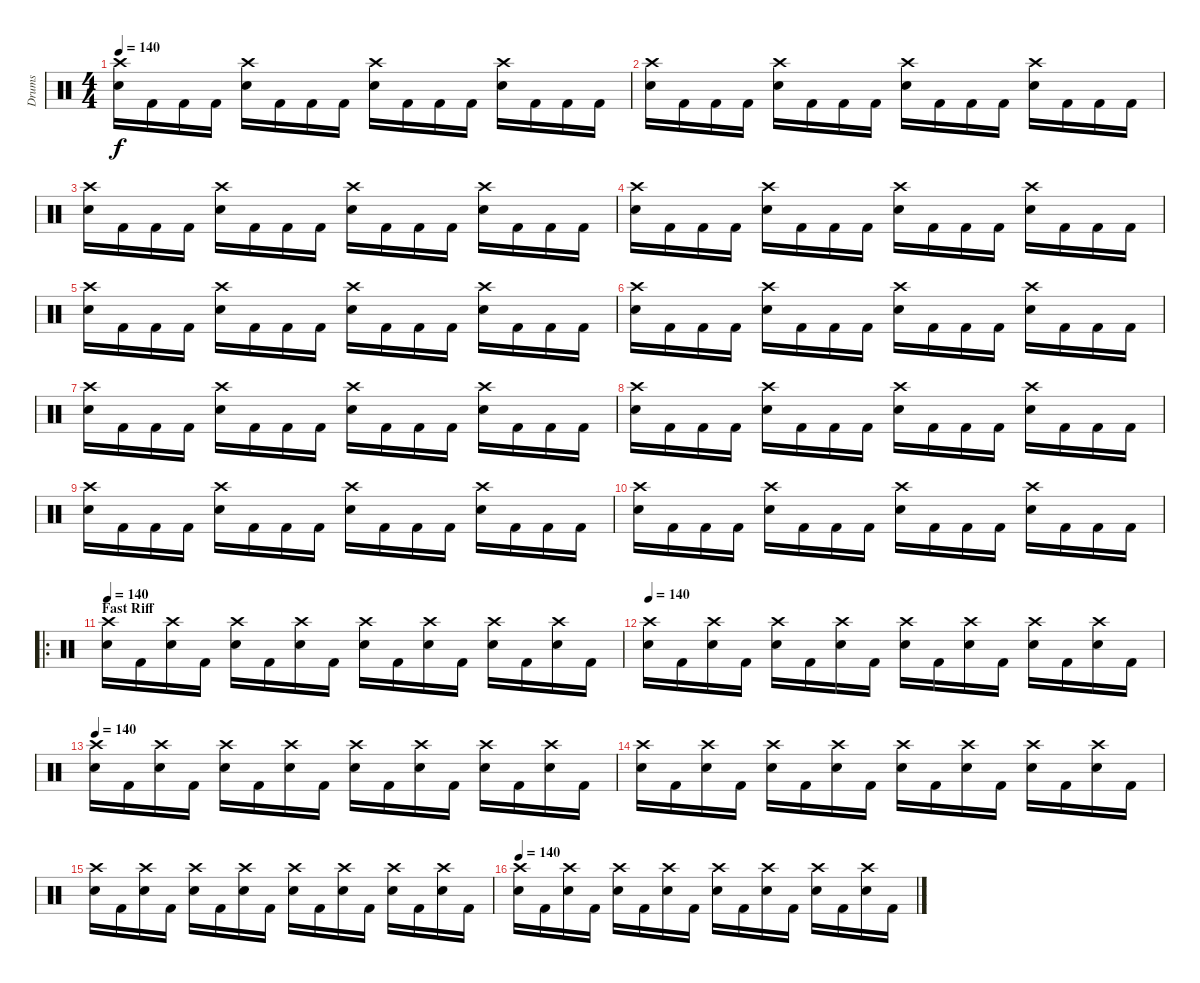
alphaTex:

\track ("Drums" "Drums") {instrument percussion}
\staff {score}
\articulation defaults
\ts (4 4)
\tempo 140
\clef neutral
\ks c
("Crash high (hit)" "Electric Snare (hit)").16{dy f} "Kick (hit) 2".16 "Kick (hit) 2".16 "Kick (hit) 2".16 ("Electric Snare (hit)" "Crash high (hit)").16 "Kick (hit) 2".16 "Kick (hit) 2".16 "Kick (hit) 2".16 ("Crash high (hit)" "Electric Snare (hit)").16 "Kick (hit) 2".16 "Kick (hit) 2".16 "Kick (hit) 2".16 ("Electric Snare (hit)" "Crash high (hit)").16 "Kick (hit) 2".16 "Kick (hit) 2".16 "Kick (hit) 2".16 |
("Crash high (hit)" "Electric Snare (hit)").16 "Kick (hit) 2".16 "Kick (hit) 2".16 "Kick (hit) 2".16 ("Electric Snare (hit)" "Crash high (hit)").16 "Kick (hit) 2".16 "Kick (hit) 2".16 "Kick (hit) 2".16 ("Crash high (hit)" "Electric Snare (hit)").16 "Kick (hit) 2".16 "Kick (hit) 2".16 "Kick (hit) 2".16 ("Electric Snare (hit)" "Crash high (hit)").16 "Kick (hit) 2".16 "Kick (hit) 2".16 "Kick (hit) 2".16 |
("Crash high (hit)" "Electric Snare (hit)").16 "Kick (hit) 2".16 "Kick (hit) 2".16 "Kick (hit) 2".16 ("Electric Snare (hit)" "Crash high (hit)").16 "Kick (hit) 2".16 "Kick (hit) 2".16 "Kick (hit) 2".16 ("Crash high (hit)" "Electric Snare (hit)").16 "Kick (hit) 2".16 "Kick (hit) 2".16 "Kick (hit) 2".16 ("Electric Snare (hit)" "Crash high (hit)").16 "Kick (hit) 2".16 "Kick (hit) 2".16 "Kick (hit) 2".16 |
("Crash high (hit)" "Electric Snare (hit)").16 "Kick (hit) 2".16 "Kick (hit) 2".16 "Kick (hit) 2".16 ("Electric Snare (hit)" "Crash high (hit)").16 "Kick (hit) 2".16 "Kick (hit) 2".16 "Kick (hit) 2".16 ("Crash high (hit)" "Electric Snare (hit)").16 "Kick (hit) 2".16 "Kick (hit) 2".16 "Kick (hit) 2".16 ("Electric Snare (hit)" "Crash high (hit)").16 "Kick (hit) 2".16 "Kick (hit) 2".16 "Kick (hit) 2".16 |
("Crash high (hit)" "Electric Snare (hit)").16 "Kick (hit) 2".16 "Kick (hit) 2".16 "Kick (hit) 2".16 ("Electric Snare (hit)" "Crash high (hit)").16 "Kick (hit) 2".16 "Kick (hit) 2".16 "Kick (hit) 2".16 ("Crash high (hit)" "Electric Snare (hit)").16 "Kick (hit) 2".16 "Kick (hit) 2".16 "Kick (hit) 2".16 ("Electric Snare (hit)" "Crash high (hit)").16 "Kick (hit) 2".16 "Kick (hit) 2".16 "Kick (hit) 2".16 |
("Crash high (hit)" "Electric Snare (hit)").16 "Kick (hit) 2".16 "Kick (hit) 2".16 "Kick (hit) 2".16 ("Electric Snare (hit)" "Crash high (hit)").16 "Kick (hit) 2".16 "Kick (hit) 2".16 "Kick (hit) 2".16 ("Crash high (hit)" "Electric Snare (hit)").16 "Kick (hit) 2".16 "Kick (hit) 2".16 "Kick (hit) 2".16 ("Electric Snare (hit)" "Crash high (hit)").16 "Kick (hit) 2".16 "Kick (hit) 2".16 "Kick (hit) 2".16 |
("Crash high (hit)" "Electric Snare (hit)").16 "Kick (hit) 2".16 "Kick (hit) 2".16 "Kick (hit) 2".16 ("Electric Snare (hit)" "Crash high (hit)").16 "Kick (hit) 2".16 "Kick (hit) 2".16 "Kick (hit) 2".16 ("Crash high (hit)" "Electric Snare (hit)").16 "Kick (hit) 2".16 "Kick (hit) 2".16 "Kick (hit) 2".16 ("Electric Snare (hit)" "Crash high (hit)").16 "Kick (hit) 2".16 "Kick (hit) 2".16 "Kick (hit) 2".16 |
("Crash high (hit)" "Electric Snare (hit)").16 "Kick (hit) 2".16 "Kick (hit) 2".16 "Kick (hit) 2".16 ("Electric Snare (hit)" "Crash high (hit)").16 "Kick (hit) 2".16 "Kick (hit) 2".16 "Kick (hit) 2".16 ("Crash high (hit)" "Electric Snare (hit)").16 "Kick (hit) 2".16 "Kick (hit) 2".16 "Kick (hit) 2".16 ("Electric Snare (hit)" "Crash high (hit)").16 "Kick (hit) 2".16 "Kick (hit) 2".16 "Kick (hit) 2".16 |
("Crash high (hit)" "Electric Snare (hit)").16 "Kick (hit) 2".16 "Kick (hit) 2".16 "Kick (hit) 2".16 ("Electric Snare (hit)" "Crash high (hit)").16 "Kick (hit) 2".16 "Kick (hit) 2".16 "Kick (hit) 2".16 ("Crash high (hit)" "Electric Snare (hit)").16 "Kick (hit) 2".16 "Kick (hit) 2".16 "Kick (hit) 2".16 ("Electric Snare (hit)" "Crash high (hit)").16 "Kick (hit) 2".16 "Kick (hit) 2".16 "Kick (hit) 2".16 |
("Crash high (hit)" "Electric Snare (hit)").16 "Kick (hit) 2".16 "Kick (hit) 2".16 "Kick (hit) 2".16 ("Electric Snare (hit)" "Crash high (hit)").16 "Kick (hit) 2".16 "Kick (hit) 2".16 "Kick (hit) 2".16 ("Crash high (hit)" "Electric Snare (hit)").16 "Kick (hit) 2".16 "Kick (hit) 2".16 "Kick (hit) 2".16 ("Electric Snare (hit)" "Crash high (hit)").16 "Kick (hit) 2".16 "Kick (hit) 2".16 "Kick (hit) 2".16 |
\ro
\section ("" "Fast Riff")
\tempo 140
("Crash high (hit)" "Electric Snare (hit)").16 "Kick (hit) 2".16 ("Electric Snare (hit)" "Crash high (hit)").16 "Kick (hit) 2".16 ("Crash high (hit)" "Electric Snare (hit)").16 "Kick (hit) 2".16 ("Electric Snare (hit)" "Crash high (hit)").16 "Kick (hit) 2".16 ("Electric Snare (hit)" "Crash high (hit)").16 "Kick (hit) 2".16 ("Crash high (hit)" "Electric Snare (hit)").16 "Kick (hit) 2".16 ("Electric Snare (hit)" "Crash high (hit)").16 "Kick (hit) 2".16 ("Electric Snare (hit)" "Crash high (hit)").16 "Kick (hit) 2".16 |
\tempo 140
("Crash high (hit)" "Electric Snare (hit)").16 "Kick (hit) 2".16 ("Electric Snare (hit)" "Crash high (hit)").16 "Kick (hit) 2".16 ("Crash high (hit)" "Electric Snare (hit)").16 "Kick (hit) 2".16 ("Electric Snare (hit)" "Crash high (hit)").16 "Kick (hit) 2".16 ("Electric Snare (hit)" "Crash high (hit)").16 "Kick (hit) 2".16 ("Crash high (hit)" "Electric Snare (hit)").16 "Kick (hit) 2".16 ("Electric Snare (hit)" "Crash high (hit)").16 "Kick (hit) 2".16 ("Electric Snare (hit)" "Crash high (hit)").16 "Kick (hit) 2".16 |
\tempo 140
("Crash high (hit)" "Electric Snare (hit)").16 "Kick (hit) 2".16 ("Electric Snare (hit)" "Crash high (hit)").16 "Kick (hit) 2".16 ("Crash high (hit)" "Electric Snare (hit)").16 "Kick (hit) 2".16 ("Electric Snare (hit)" "Crash high (hit)").16 "Kick (hit) 2".16 ("Electric Snare (hit)" "Crash high (hit)").16 "Kick (hit) 2".16 ("Crash high (hit)" "Electric Snare (hit)").16 "Kick (hit) 2".16 ("Electric Snare (hit)" "Crash high (hit)").16 "Kick (hit) 2".16 ("Electric Snare (hit)" "Crash high (hit)").16 "Kick (hit) 2".16 |
("Crash high (hit)" "Electric Snare (hit)").16 "Kick (hit) 2".16 ("Electric Snare (hit)" "Crash high (hit)").16 "Kick (hit) 2".16 ("Crash high (hit)" "Electric Snare (hit)").16 "Kick (hit) 2".16 ("Electric Snare (hit)" "Crash high (hit)").16 "Kick (hit) 2".16 ("Electric Snare (hit)" "Crash high (hit)").16 "Kick (hit) 2".16 ("Crash high (hit)" "Electric Snare (hit)").16 "Kick (hit) 2".16 ("Electric Snare (hit)" "Crash high (hit)").16 "Kick (hit) 2".16 ("Electric Snare (hit)" "Crash high (hit)").16 "Kick (hit) 2".16 |
("Crash high (hit)" "Electric Snare (hit)").16 "Kick (hit) 2".16 ("Electric Snare (hit)" "Crash high (hit)").16 "Kick (hit) 2".16 ("Crash high (hit)" "Electric Snare (hit)").16 "Kick (hit) 2".16 ("Electric Snare (hit)" "Crash high (hit)").16 "Kick (hit) 2".16 ("Electric Snare (hit)" "Crash high (hit)").16 "Kick (hit) 2".16 ("Crash high (hit)" "Electric Snare (hit)").16 "Kick (hit) 2".16 ("Electric Snare (hit)" "Crash high (hit)").16 "Kick (hit) 2".16 ("Electric Snare (hit)" "Crash high (hit)").16 "Kick (hit) 2".16 |
\tempo 140
("Crash high (hit)" "Electric Snare (hit)").16 "Kick (hit) 2".16 ("Electric Snare (hit)" "Crash high (hit)").16 "Kick (hit) 2".16 ("Crash high (hit)" "Electric Snare (hit)").16 "Kick (hit) 2".16 ("Electric Snare (hit)" "Crash high (hit)").16 "Kick (hit) 2".16 ("Electric Snare (hit)" "Crash high (hit)").16 "Kick (hit) 2".16 ("Crash high (hit)" "Electric Snare (hit)").16 "Kick (hit) 2".16 ("Electric Snare (hit)" "Crash high (hit)").16 "Kick (hit) 2".16 ("Electric Snare (hit)" "Crash high (hit)").16 "Kick (hit) 2".16
